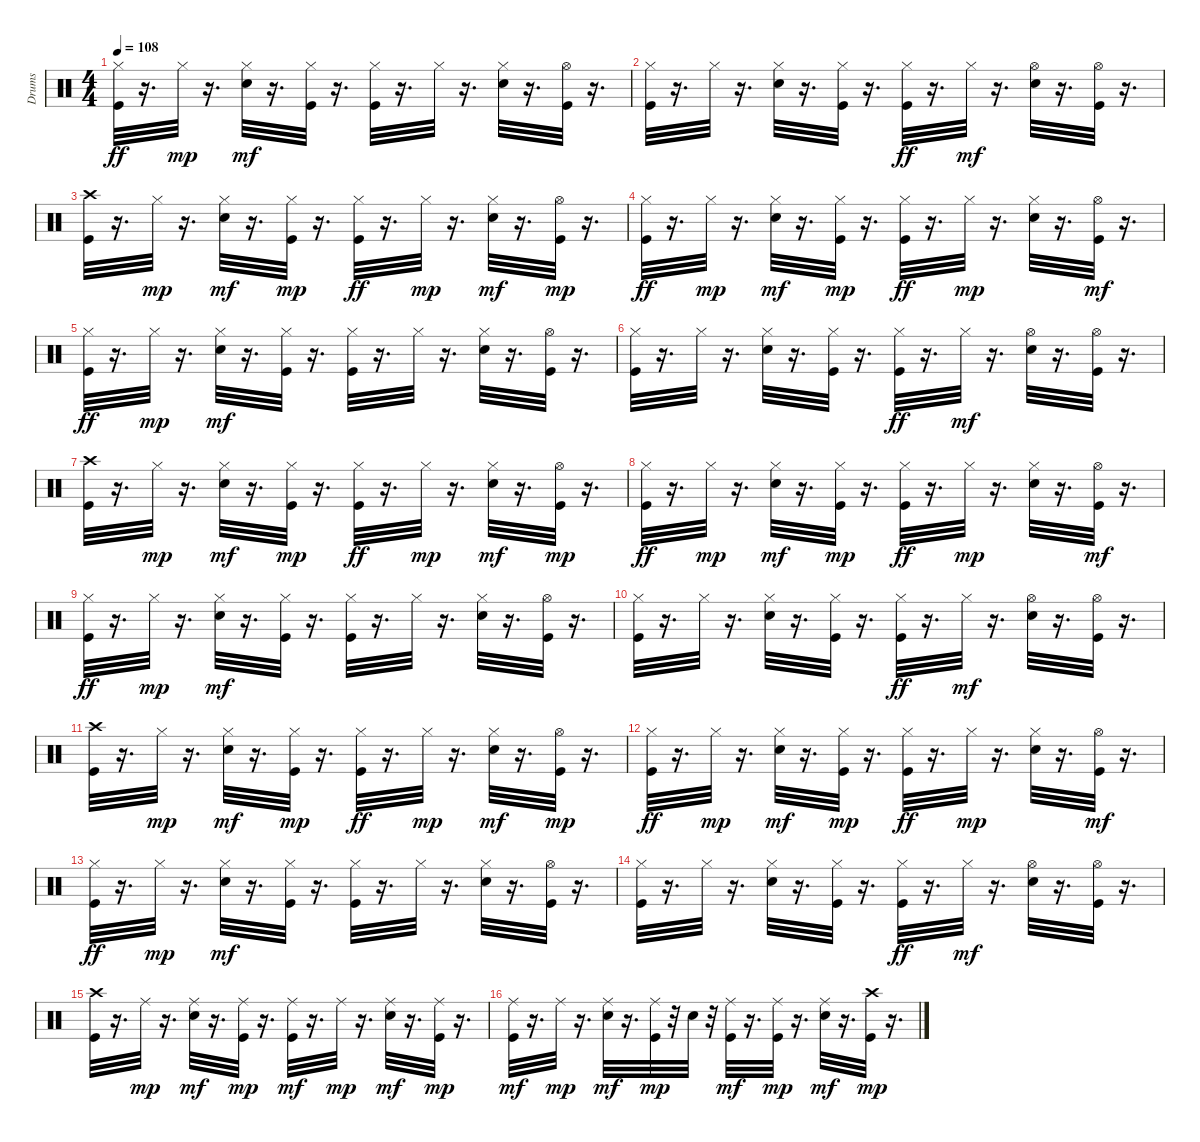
\track ("Drums" "Drums") {instrument percussion}
\staff {score}
\articulation defaults
\ts (4 4)
\tempo 108
\clef neutral
\ks c
("Kick (hit)" "Hi-Hat (closed)").32{dy ff} r.16{d} "Hi-Hat (closed)".32{dy mp} r.16{d} ("Electric Snare (hit)" "Hi-Hat (closed)").32{dy mf} r.16{d} ("Kick (hit)" "Hi-Hat (closed)").32 r.16{d} ("Kick (hit)" "Hi-Hat (closed)").32 r.16{d} "Hi-Hat (closed)".32 r.16{d} ("Electric Snare (hit)" "Hi-Hat (closed)").32 r.16{d} ("Kick (hit)" "Hi-Hat (open)").32 r.16{d} |
("Kick (hit)" "Hi-Hat (closed)").32 r.16{d} "Hi-Hat (closed)".32 r.16{d} ("Electric Snare (hit)" "Hi-Hat (closed)").32 r.16{d} ("Kick (hit)" "Hi-Hat (closed)").32 r.16{d} ("Kick (hit)" "Hi-Hat (closed)").32{dy ff} r.16{d} "Hi-Hat (closed)".32{dy mf} r.16{d} ("Electric Snare (hit)" "Hi-Hat (open)").32 r.16{d} ("Kick (hit)" "Hi-Hat (open)").32 r.16{d} |
("Kick (hit)" "Crash high (hit)").32 r.16{d} "Hi-Hat (closed)".32{dy mp} r.16{d} ("Electric Snare (hit)" "Hi-Hat (closed)").32{dy mf} r.16{d} ("Kick (hit)" "Hi-Hat (closed)").32{dy mp} r.16{d} ("Kick (hit)" "Hi-Hat (closed)").32{dy ff} r.16{d} "Hi-Hat (closed)".32{dy mp} r.16{d} ("Electric Snare (hit)" "Hi-Hat (closed)").32{dy mf} r.16{d} ("Kick (hit)" "Hi-Hat (open)").32{dy mp} r.16{d} |
("Kick (hit)" "Hi-Hat (closed)").32{dy ff} r.16{d} "Hi-Hat (closed)".32{dy mp} r.16{d} ("Electric Snare (hit)" "Hi-Hat (closed)").32{dy mf} r.16{d} ("Kick (hit)" "Hi-Hat (closed)").32{dy mp} r.16{d} ("Kick (hit)" "Hi-Hat (closed)").32{dy ff} r.16{d} "Hi-Hat (closed)".32{dy mp} r.16{d} ("Electric Snare (hit)" "Hi-Hat (closed)").32 r.16{d} ("Kick (hit)" "Hi-Hat (open)").32{dy mf} r.16{d} |
("Kick (hit)" "Hi-Hat (closed)").32{dy ff} r.16{d} "Hi-Hat (closed)".32{dy mp} r.16{d} ("Electric Snare (hit)" "Hi-Hat (closed)").32{dy mf} r.16{d} ("Kick (hit)" "Hi-Hat (closed)").32 r.16{d} ("Kick (hit)" "Hi-Hat (closed)").32 r.16{d} "Hi-Hat (closed)".32 r.16{d} ("Electric Snare (hit)" "Hi-Hat (closed)").32 r.16{d} ("Kick (hit)" "Hi-Hat (open)").32 r.16{d} |
("Kick (hit)" "Hi-Hat (closed)").32 r.16{d} "Hi-Hat (closed)".32 r.16{d} ("Electric Snare (hit)" "Hi-Hat (closed)").32 r.16{d} ("Kick (hit)" "Hi-Hat (closed)").32 r.16{d} ("Kick (hit)" "Hi-Hat (closed)").32{dy ff} r.16{d} "Hi-Hat (closed)".32{dy mf} r.16{d} ("Electric Snare (hit)" "Hi-Hat (open)").32 r.16{d} ("Kick (hit)" "Hi-Hat (open)").32 r.16{d} |
("Kick (hit)" "Crash high (hit)").32 r.16{d} "Hi-Hat (closed)".32{dy mp} r.16{d} ("Electric Snare (hit)" "Hi-Hat (closed)").32{dy mf} r.16{d} ("Kick (hit)" "Hi-Hat (closed)").32{dy mp} r.16{d} ("Kick (hit)" "Hi-Hat (closed)").32{dy ff} r.16{d} "Hi-Hat (closed)".32{dy mp} r.16{d} ("Electric Snare (hit)" "Hi-Hat (closed)").32{dy mf} r.16{d} ("Kick (hit)" "Hi-Hat (open)").32{dy mp} r.16{d} |
("Kick (hit)" "Hi-Hat (closed)").32{dy ff} r.16{d} "Hi-Hat (closed)".32{dy mp} r.16{d} ("Electric Snare (hit)" "Hi-Hat (closed)").32{dy mf} r.16{d} ("Kick (hit)" "Hi-Hat (closed)").32{dy mp} r.16{d} ("Kick (hit)" "Hi-Hat (closed)").32{dy ff} r.16{d} "Hi-Hat (closed)".32{dy mp} r.16{d} ("Electric Snare (hit)" "Hi-Hat (closed)").32 r.16{d} ("Kick (hit)" "Hi-Hat (open)").32{dy mf} r.16{d} |
("Kick (hit)" "Hi-Hat (closed)").32{dy ff} r.16{d} "Hi-Hat (closed)".32{dy mp} r.16{d} ("Electric Snare (hit)" "Hi-Hat (closed)").32{dy mf} r.16{d} ("Kick (hit)" "Hi-Hat (closed)").32 r.16{d} ("Kick (hit)" "Hi-Hat (closed)").32 r.16{d} "Hi-Hat (closed)".32 r.16{d} ("Electric Snare (hit)" "Hi-Hat (closed)").32 r.16{d} ("Kick (hit)" "Hi-Hat (open)").32 r.16{d} |
("Kick (hit)" "Hi-Hat (closed)").32 r.16{d} "Hi-Hat (closed)".32 r.16{d} ("Electric Snare (hit)" "Hi-Hat (closed)").32 r.16{d} ("Kick (hit)" "Hi-Hat (closed)").32 r.16{d} ("Kick (hit)" "Hi-Hat (closed)").32{dy ff} r.16{d} "Hi-Hat (closed)".32{dy mf} r.16{d} ("Electric Snare (hit)" "Hi-Hat (open)").32 r.16{d} ("Kick (hit)" "Hi-Hat (open)").32 r.16{d} |
("Kick (hit)" "Crash high (hit)").32 r.16{d} "Hi-Hat (closed)".32{dy mp} r.16{d} ("Electric Snare (hit)" "Hi-Hat (closed)").32{dy mf} r.16{d} ("Kick (hit)" "Hi-Hat (closed)").32{dy mp} r.16{d} ("Kick (hit)" "Hi-Hat (closed)").32{dy ff} r.16{d} "Hi-Hat (closed)".32{dy mp} r.16{d} ("Electric Snare (hit)" "Hi-Hat (closed)").32{dy mf} r.16{d} ("Kick (hit)" "Hi-Hat (open)").32{dy mp} r.16{d} |
("Kick (hit)" "Hi-Hat (closed)").32{dy ff} r.16{d} "Hi-Hat (closed)".32{dy mp} r.16{d} ("Electric Snare (hit)" "Hi-Hat (closed)").32{dy mf} r.16{d} ("Kick (hit)" "Hi-Hat (closed)").32{dy mp} r.16{d} ("Kick (hit)" "Hi-Hat (closed)").32{dy ff} r.16{d} "Hi-Hat (closed)".32{dy mp} r.16{d} ("Electric Snare (hit)" "Hi-Hat (closed)").32 r.16{d} ("Kick (hit)" "Hi-Hat (open)").32{dy mf} r.16{d} |
("Kick (hit)" "Hi-Hat (closed)").32{dy ff} r.16{d} "Hi-Hat (closed)".32{dy mp} r.16{d} ("Electric Snare (hit)" "Hi-Hat (closed)").32{dy mf} r.16{d} ("Kick (hit)" "Hi-Hat (closed)").32 r.16{d} ("Kick (hit)" "Hi-Hat (closed)").32 r.16{d} "Hi-Hat (closed)".32 r.16{d} ("Electric Snare (hit)" "Hi-Hat (closed)").32 r.16{d} ("Kick (hit)" "Hi-Hat (open)").32 r.16{d} |
("Kick (hit)" "Hi-Hat (closed)").32 r.16{d} "Hi-Hat (closed)".32 r.16{d} ("Electric Snare (hit)" "Hi-Hat (closed)").32 r.16{d} ("Kick (hit)" "Hi-Hat (closed)").32 r.16{d} ("Kick (hit)" "Hi-Hat (closed)").32{dy ff} r.16{d} "Hi-Hat (closed)".32{dy mf} r.16{d} ("Electric Snare (hit)" "Hi-Hat (open)").32 r.16{d} ("Kick (hit)" "Hi-Hat (open)").32 r.16{d} |
("Kick (hit)" "Crash high (hit)").32 r.16{d} "Ride (middle)".32{dy mp} r.16{d} ("Electric Snare (hit)" "Ride (middle)").32{dy mf} r.16{d} ("Kick (hit)" "Ride (middle)").32{dy mp} r.16{d} ("Kick (hit)" "Ride (middle)").32{dy mf} r.16{d} "Ride (middle)".32{dy mp} r.16{d} ("Electric Snare (hit)" "Ride (middle)").32{dy mf} r.16{d} ("Kick (hit)" "Ride (middle)").32{dy mp} r.16{d} |
("Kick (hit)" "Ride (middle)").32{dy mf} r.16{d} "Ride (middle)".32{dy mp} r.16{d} ("Electric Snare (hit)" "Ride (middle)").32{dy mf} r.16{d} ("Kick (hit)" "Ride (middle)").32{dy mp} r.32 "Electric Snare (hit)".32 r.32 ("Kick (hit)" "Ride (middle)").32{dy mf} r.16{d} ("Kick (hit)" "Ride (middle)").32{dy mp} r.16{d} ("Electric Snare (hit)" "Ride (middle)").32{dy mf} r.16{d} ("Kick (hit)" "Crash high (hit)").32{dy mp} r.16{d}
